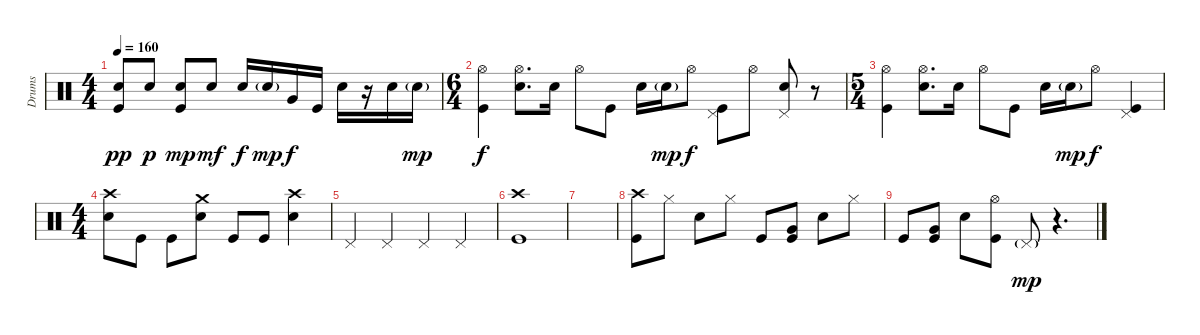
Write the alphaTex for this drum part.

\track ("Drums" "Drums") {instrument percussion}
\staff {score}
\articulation defaults
\ts (4 4)
\tempo 160
\clef neutral
\ks c
("Kick (hit)" "Snare (hit) 2").8{dy pp} "Snare (hit) 2".8{dy p} ("Kick (hit)" "Snare (hit) 2").8{dy mp} "Snare (hit) 2".8{dy mf} "Snare (hit) 2".16{dy f} "Snare (hit) 2"{g}.16{dy mp} "Very Low Tom (hit)".16{dy f} "Kick (hit)".16 "Snare (hit) 2".16 r.16 "Snare (hit) 2".16 "Snare (hit) 2"{g}.16{dy mp} |
\ts (6 4)
("Kick (hit)" "Hi-Hat (open)").4{dy f} ("Snare (hit) 2" "Hi-Hat (open)").8{d} "Snare (hit) 2".16 "Hi-Hat (open)".8 "Kick (hit)".8 "Snare (hit) 2".16 "Snare (hit) 2"{g}.16{dy mp} "Hi-Hat (open)".8{dy f} ("Kick (hit)" "Pedal Hi-Hat (hit)").8 "Hi-Hat (open)".8 ("Snare (hit) 2" "Pedal Hi-Hat (hit)").8 r.8 |
\ts (5 4)
("Kick (hit)" "Hi-Hat (open)").4 ("Snare (hit) 2" "Hi-Hat (open)").8{d} "Snare (hit) 2".16 "Hi-Hat (open)".8 "Kick (hit)".8 "Snare (hit) 2".16 "Snare (hit) 2"{g}.16{dy mp} "Hi-Hat (open)".8{dy f} ("Kick (hit)" "Pedal Hi-Hat (hit)").4 |
\ts (4 4)
("Snare (hit) 2" "Crash high (hit)").8 "Kick (hit)".8 "Kick (hit)".8 ("Snare (hit) 2" "Crash medium (hit)").8 "Kick (hit)".8 "Kick (hit)".8 ("Snare (hit) 2" "Crash high (hit)").4 |
"Pedal Hi-Hat (hit)".4 "Pedal Hi-Hat (hit)".4 "Pedal Hi-Hat (hit)".4 "Pedal Hi-Hat (hit)".4 |
("Kick (hit)" "Crash high (hit)").1 |
|
("Kick (hit)" "Crash high (hit)").8 "Hi-Hat (closed)".8 "Snare (hit) 2".8 "Hi-Hat (closed)".8 "Kick (hit)".8 ("Kick (hit)" "Very Low Tom (hit)").8 "Snare (hit) 2".8 "Hi-Hat (closed)".8 |
"Kick (hit)".8 ("Kick (hit)" "Very Low Tom (hit)").8 "Snare (hit) 2".8 ("Kick (hit)" "Hi-Hat (open)").8 "Pedal Hi-Hat (hit)"{g}.8{dy mp} r.4{d}
